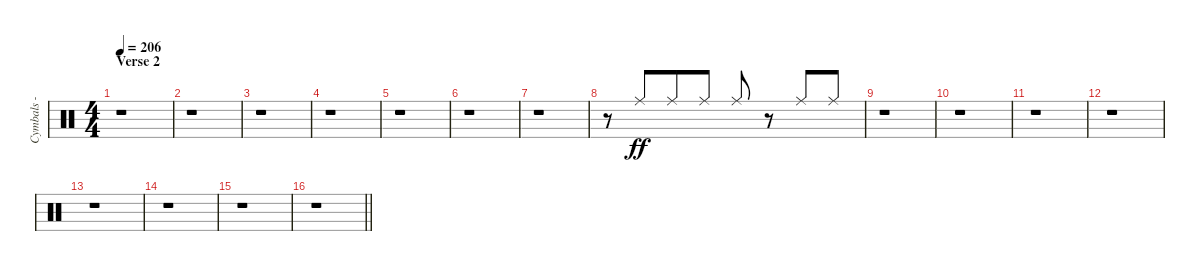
\track ("Cymbals - ride" "Cymbals - ") {instrument percussion}
\staff {score}
\articulation defaults
\ts (4 4)
\section ("" "Verse 2")
\tempo 206
\clef neutral
\ks c
r.1{dy ff} |
r.1 |
r.1 |
r.1 |
r.1 |
r.1 |
r.1 |
r.8 "Ride (middle)".8{beam Up beam merge} "Ride (middle)".8{beam Up} "Ride (middle)".8{beam Up beam split} "Ride (middle)".8{beam Up} r.8{beam Up beam merge} "Ride (middle)".8{beam Up} "Ride (middle)".8{beam Up} |
r.1 |
r.1 |
r.1 |
r.1 |
r.1 |
r.1 |
r.1 |
\barLineRight lightlight
r.1
